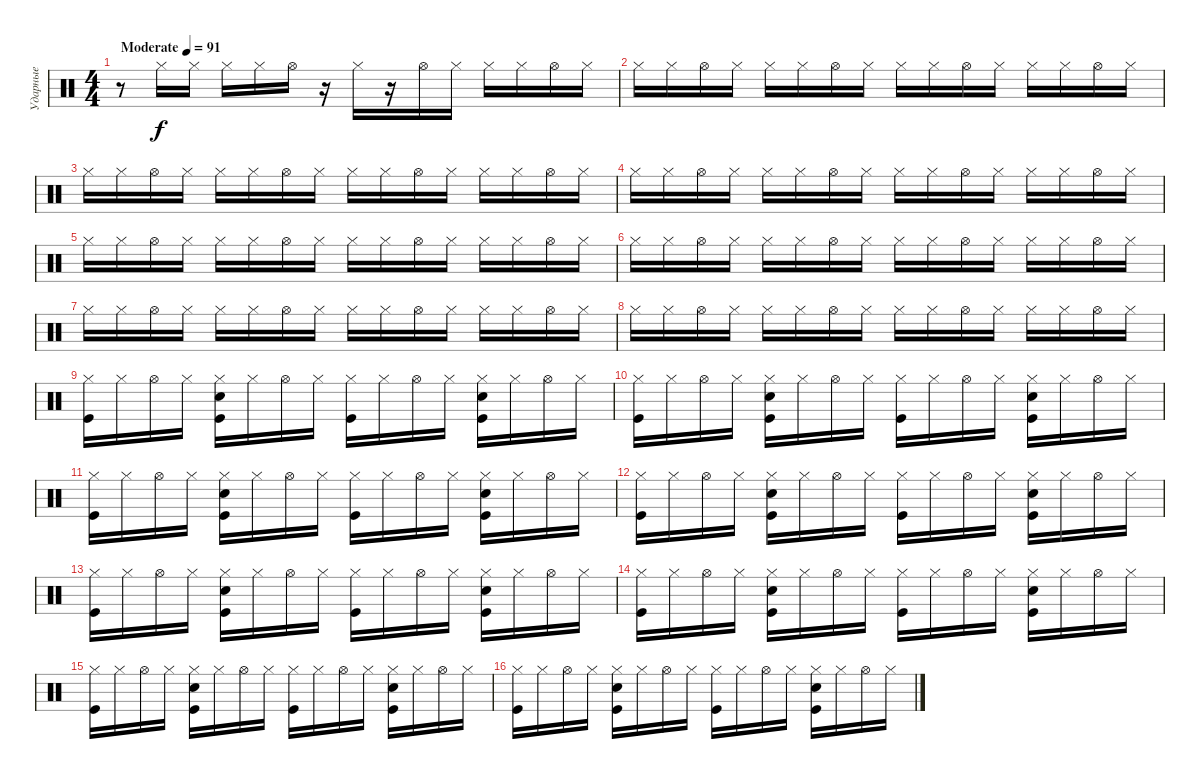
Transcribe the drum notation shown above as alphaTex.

\track ("Ударные" "Ударные") {instrument percussion}
\staff {score}
\articulation defaults
\ts (4 4)
\tempo (91 "Moderate")
\clef neutral
\ks c
r.8{dy f} "Hi-Hat (closed)".16 "Hi-Hat (closed)".16 "Hi-Hat (closed)".16 "Hi-Hat (closed)".16 "Hi-Hat (open)".16 r.16 "Hi-Hat (closed)".16 r.16 "Hi-Hat (open)".16 "Hi-Hat (closed)".16 "Hi-Hat (closed)".16 "Hi-Hat (closed)".16 "Hi-Hat (open)".16 "Hi-Hat (closed)".16 |
"Hi-Hat (closed)".16 "Hi-Hat (closed)".16 "Hi-Hat (open)".16 "Hi-Hat (closed)".16 "Hi-Hat (closed)".16 "Hi-Hat (closed)".16 "Hi-Hat (open)".16 "Hi-Hat (closed)".16 "Hi-Hat (closed)".16 "Hi-Hat (closed)".16 "Hi-Hat (open)".16 "Hi-Hat (closed)".16 "Hi-Hat (closed)".16 "Hi-Hat (closed)".16 "Hi-Hat (open)".16 "Hi-Hat (closed)".16 |
"Hi-Hat (closed)".16 "Hi-Hat (closed)".16 "Hi-Hat (open)".16 "Hi-Hat (closed)".16 "Hi-Hat (closed)".16 "Hi-Hat (closed)".16 "Hi-Hat (open)".16 "Hi-Hat (closed)".16 "Hi-Hat (closed)".16 "Hi-Hat (closed)".16 "Hi-Hat (open)".16 "Hi-Hat (closed)".16 "Hi-Hat (closed)".16 "Hi-Hat (closed)".16 "Hi-Hat (open)".16 "Hi-Hat (closed)".16 |
"Hi-Hat (closed)".16 "Hi-Hat (closed)".16 "Hi-Hat (open)".16 "Hi-Hat (closed)".16 "Hi-Hat (closed)".16 "Hi-Hat (closed)".16 "Hi-Hat (open)".16 "Hi-Hat (closed)".16 "Hi-Hat (closed)".16 "Hi-Hat (closed)".16 "Hi-Hat (open)".16 "Hi-Hat (closed)".16 "Hi-Hat (closed)".16 "Hi-Hat (closed)".16 "Hi-Hat (open)".16 "Hi-Hat (closed)".16 |
"Hi-Hat (closed)".16 "Hi-Hat (closed)".16 "Hi-Hat (open)".16 "Hi-Hat (closed)".16 "Hi-Hat (closed)".16 "Hi-Hat (closed)".16 "Hi-Hat (open)".16 "Hi-Hat (closed)".16 "Hi-Hat (closed)".16 "Hi-Hat (closed)".16 "Hi-Hat (open)".16 "Hi-Hat (closed)".16 "Hi-Hat (closed)".16 "Hi-Hat (closed)".16 "Hi-Hat (open)".16 "Hi-Hat (closed)".16 |
"Hi-Hat (closed)".16 "Hi-Hat (closed)".16 "Hi-Hat (open)".16 "Hi-Hat (closed)".16 "Hi-Hat (closed)".16 "Hi-Hat (closed)".16 "Hi-Hat (open)".16 "Hi-Hat (closed)".16 "Hi-Hat (closed)".16 "Hi-Hat (closed)".16 "Hi-Hat (open)".16 "Hi-Hat (closed)".16 "Hi-Hat (closed)".16 "Hi-Hat (closed)".16 "Hi-Hat (open)".16 "Hi-Hat (closed)".16 |
"Hi-Hat (closed)".16 "Hi-Hat (closed)".16 "Hi-Hat (open)".16 "Hi-Hat (closed)".16 "Hi-Hat (closed)".16 "Hi-Hat (closed)".16 "Hi-Hat (open)".16 "Hi-Hat (closed)".16 "Hi-Hat (closed)".16 "Hi-Hat (closed)".16 "Hi-Hat (open)".16 "Hi-Hat (closed)".16 "Hi-Hat (closed)".16 "Hi-Hat (closed)".16 "Hi-Hat (open)".16 "Hi-Hat (closed)".16 |
"Hi-Hat (closed)".16 "Hi-Hat (closed)".16 "Hi-Hat (open)".16 "Hi-Hat (closed)".16 "Hi-Hat (closed)".16 "Hi-Hat (closed)".16 "Hi-Hat (open)".16 "Hi-Hat (closed)".16 "Hi-Hat (closed)".16 "Hi-Hat (closed)".16 "Hi-Hat (open)".16 "Hi-Hat (closed)".16 "Hi-Hat (closed)".16 "Hi-Hat (closed)".16 "Hi-Hat (open)".16 "Hi-Hat (closed)".16 |
("Hi-Hat (closed)" "Kick (hit)").16 "Hi-Hat (closed)".16 "Hi-Hat (open)".16 "Hi-Hat (closed)".16 ("Hi-Hat (closed)" "Snare (hit) 2" "Kick (hit)").16 "Hi-Hat (closed)".16 "Hi-Hat (open)".16 "Hi-Hat (closed)".16 ("Hi-Hat (closed)" "Kick (hit)").16 "Hi-Hat (closed)".16 "Hi-Hat (open)".16 "Hi-Hat (closed)".16 ("Hi-Hat (closed)" "Snare (hit) 2" "Kick (hit)").16 "Hi-Hat (closed)".16 "Hi-Hat (open)".16 "Hi-Hat (closed)".16 |
("Hi-Hat (closed)" "Kick (hit)").16 "Hi-Hat (closed)".16 "Hi-Hat (open)".16 "Hi-Hat (closed)".16 ("Hi-Hat (closed)" "Snare (hit) 2" "Kick (hit)").16 "Hi-Hat (closed)".16 "Hi-Hat (open)".16 "Hi-Hat (closed)".16 ("Hi-Hat (closed)" "Kick (hit)").16 "Hi-Hat (closed)".16 "Hi-Hat (open)".16 "Hi-Hat (closed)".16 ("Hi-Hat (closed)" "Snare (hit) 2" "Kick (hit)").16 "Hi-Hat (closed)".16 "Hi-Hat (open)".16 "Hi-Hat (closed)".16 |
("Hi-Hat (closed)" "Kick (hit)").16 "Hi-Hat (closed)".16 "Hi-Hat (open)".16 "Hi-Hat (closed)".16 ("Hi-Hat (closed)" "Snare (hit) 2" "Kick (hit)").16 "Hi-Hat (closed)".16 "Hi-Hat (open)".16 "Hi-Hat (closed)".16 ("Hi-Hat (closed)" "Kick (hit)").16 "Hi-Hat (closed)".16 "Hi-Hat (open)".16 "Hi-Hat (closed)".16 ("Hi-Hat (closed)" "Snare (hit) 2" "Kick (hit)").16 "Hi-Hat (closed)".16 "Hi-Hat (open)".16 "Hi-Hat (closed)".16 |
("Hi-Hat (closed)" "Kick (hit)").16 "Hi-Hat (closed)".16 "Hi-Hat (open)".16 "Hi-Hat (closed)".16 ("Hi-Hat (closed)" "Snare (hit) 2" "Kick (hit)").16 "Hi-Hat (closed)".16 "Hi-Hat (open)".16 "Hi-Hat (closed)".16 ("Hi-Hat (closed)" "Kick (hit)").16 "Hi-Hat (closed)".16 "Hi-Hat (open)".16 "Hi-Hat (closed)".16 ("Hi-Hat (closed)" "Snare (hit) 2" "Kick (hit)").16 "Hi-Hat (closed)".16 "Hi-Hat (open)".16 "Hi-Hat (closed)".16 |
("Hi-Hat (closed)" "Kick (hit)").16 "Hi-Hat (closed)".16 "Hi-Hat (open)".16 "Hi-Hat (closed)".16 ("Hi-Hat (closed)" "Snare (hit) 2" "Kick (hit)").16 "Hi-Hat (closed)".16 "Hi-Hat (open)".16 "Hi-Hat (closed)".16 ("Hi-Hat (closed)" "Kick (hit)").16 "Hi-Hat (closed)".16 "Hi-Hat (open)".16 "Hi-Hat (closed)".16 ("Hi-Hat (closed)" "Snare (hit) 2" "Kick (hit)").16 "Hi-Hat (closed)".16 "Hi-Hat (open)".16 "Hi-Hat (closed)".16 |
("Hi-Hat (closed)" "Kick (hit)").16 "Hi-Hat (closed)".16 "Hi-Hat (open)".16 "Hi-Hat (closed)".16 ("Hi-Hat (closed)" "Snare (hit) 2" "Kick (hit)").16 "Hi-Hat (closed)".16 "Hi-Hat (open)".16 "Hi-Hat (closed)".16 ("Hi-Hat (closed)" "Kick (hit)").16 "Hi-Hat (closed)".16 "Hi-Hat (open)".16 "Hi-Hat (closed)".16 ("Hi-Hat (closed)" "Snare (hit) 2" "Kick (hit)").16 "Hi-Hat (closed)".16 "Hi-Hat (open)".16 "Hi-Hat (closed)".16 |
("Hi-Hat (closed)" "Kick (hit)").16 "Hi-Hat (closed)".16 "Hi-Hat (open)".16 "Hi-Hat (closed)".16 ("Hi-Hat (closed)" "Snare (hit) 2" "Kick (hit)").16 "Hi-Hat (closed)".16 "Hi-Hat (open)".16 "Hi-Hat (closed)".16 ("Hi-Hat (closed)" "Kick (hit)").16 "Hi-Hat (closed)".16 "Hi-Hat (open)".16 "Hi-Hat (closed)".16 ("Hi-Hat (closed)" "Snare (hit) 2" "Kick (hit)").16 "Hi-Hat (closed)".16 "Hi-Hat (open)".16 "Hi-Hat (closed)".16 |
("Hi-Hat (closed)" "Kick (hit)").16 "Hi-Hat (closed)".16 "Hi-Hat (open)".16 "Hi-Hat (closed)".16 ("Hi-Hat (closed)" "Snare (hit) 2" "Kick (hit)").16 "Hi-Hat (closed)".16 "Hi-Hat (open)".16 "Hi-Hat (closed)".16 ("Hi-Hat (closed)" "Kick (hit)").16 "Hi-Hat (closed)".16 "Hi-Hat (open)".16 "Hi-Hat (closed)".16 ("Hi-Hat (closed)" "Snare (hit) 2" "Kick (hit)").16 "Hi-Hat (closed)".16 "Hi-Hat (open)".16 "Hi-Hat (closed)".16
